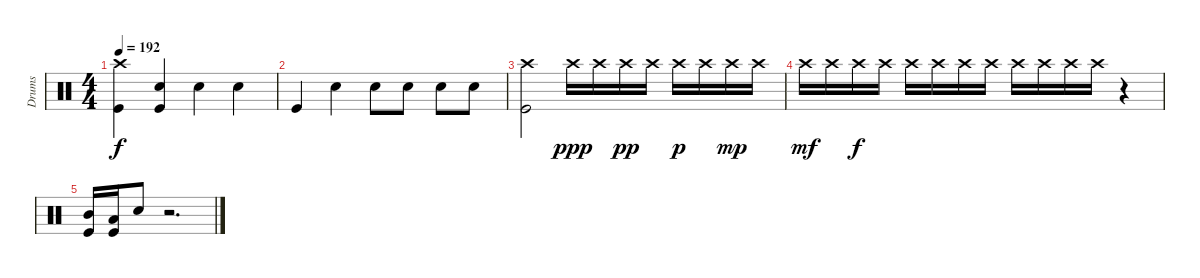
\track ("Drums" "Drums") {instrument percussion}
\staff {score}
\articulation defaults
\ts (4 4)
\tempo 192
\clef neutral
\ks c
("Crash high (hit)" "Kick (hit)").4{dy f} ("Snare (hit) 2"{tr (38 16)} "Kick (hit)").4 "Snare (hit) 2".4 "Snare (hit) 2".4 |
"Kick (hit)".4 "Snare (hit) 2".4 "Snare (hit) 2".8 "Snare (hit) 2".8 "Snare (hit) 2".8 "Snare (hit) 2".8 |
("Crash high (hit)" "Kick (hit)").2 "Crash high (hit)".16{dy ppp} "Crash high (hit)".16 "Crash high (hit)".16{dy pp} "Crash high (hit)".16 "Crash high (hit)".16{dy p} "Crash high (hit)".16 "Crash high (hit)".16{dy mp} "Crash high (hit)".16 |
"Crash high (hit)".16{dy mf} "Crash high (hit)".16 "Crash high (hit)".16{dy f} "Crash high (hit)".16 "Crash high (hit)".16 "Crash high (hit)".16 "Crash high (hit)".16 "Crash high (hit)".16 "Crash high (hit)".16 "Crash high (hit)".16 "Crash high (hit)".16 "Crash high (hit)".16 r.4 |
("Mid Tom (hit)" "Kick (hit)").16 ("Low Tom (hit)" "Kick (hit)").16 "Snare (hit) 2".8 r.2{d}
